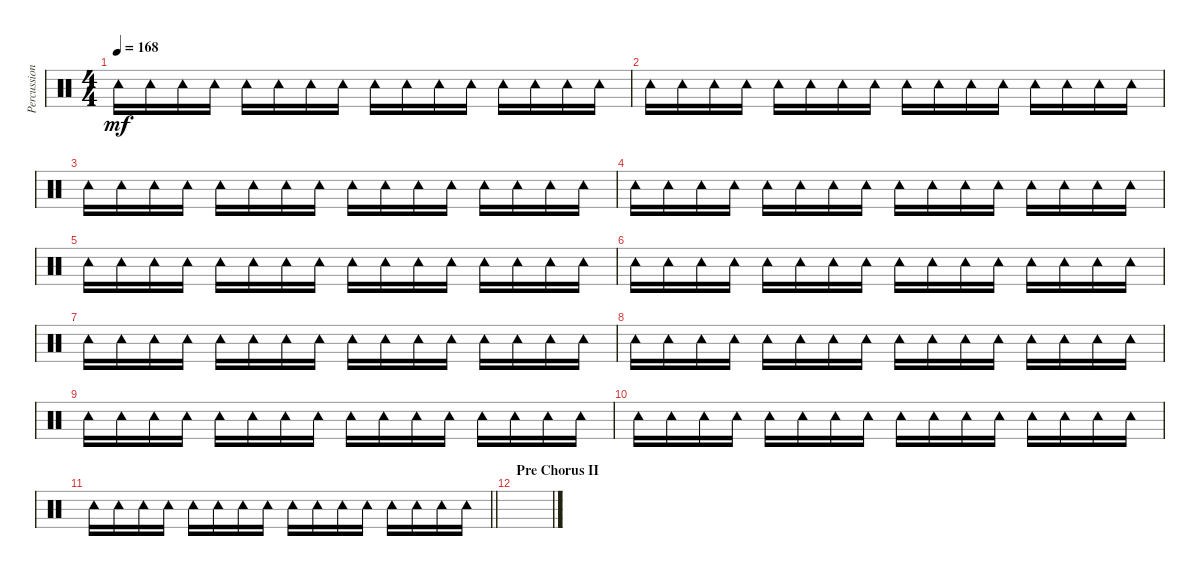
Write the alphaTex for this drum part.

\track ("Percussion" "Percussion") {instrument percussion}
\staff {score}
\articulation defaults
\ts (4 4)
\tempo 168
\clef neutral
\ks c "Tambourine (hit)".16{dy mf} "Tambourine (hit)".16 "Tambourine (hit)".16 "Tambourine (hit)".16 "Tambourine (hit)".16 "Tambourine (hit)".16 "Tambourine (hit)".16 "Tambourine (hit)".16 "Tambourine (hit)".16 "Tambourine (hit)".16 "Tambourine (hit)".16 "Tambourine (hit)".16 "Tambourine (hit)".16 "Tambourine (hit)".16 "Tambourine (hit)".16 "Tambourine (hit)".16
|
"Tambourine (hit)".16 "Tambourine (hit)".16 "Tambourine (hit)".16 "Tambourine (hit)".16 "Tambourine (hit)".16 "Tambourine (hit)".16 "Tambourine (hit)".16 "Tambourine (hit)".16 "Tambourine (hit)".16 "Tambourine (hit)".16 "Tambourine (hit)".16 "Tambourine (hit)".16 "Tambourine (hit)".16 "Tambourine (hit)".16 "Tambourine (hit)".16 "Tambourine (hit)".16 |
"Tambourine (hit)".16 "Tambourine (hit)".16 "Tambourine (hit)".16 "Tambourine (hit)".16 "Tambourine (hit)".16 "Tambourine (hit)".16 "Tambourine (hit)".16 "Tambourine (hit)".16 "Tambourine (hit)".16 "Tambourine (hit)".16 "Tambourine (hit)".16 "Tambourine (hit)".16 "Tambourine (hit)".16 "Tambourine (hit)".16 "Tambourine (hit)".16 "Tambourine (hit)".16 |
"Tambourine (hit)".16 "Tambourine (hit)".16 "Tambourine (hit)".16 "Tambourine (hit)".16 "Tambourine (hit)".16 "Tambourine (hit)".16 "Tambourine (hit)".16 "Tambourine (hit)".16 "Tambourine (hit)".16 "Tambourine (hit)".16 "Tambourine (hit)".16 "Tambourine (hit)".16 "Tambourine (hit)".16 "Tambourine (hit)".16 "Tambourine (hit)".16 "Tambourine (hit)".16 |
"Tambourine (hit)".16 "Tambourine (hit)".16 "Tambourine (hit)".16 "Tambourine (hit)".16 "Tambourine (hit)".16 "Tambourine (hit)".16 "Tambourine (hit)".16 "Tambourine (hit)".16 "Tambourine (hit)".16 "Tambourine (hit)".16 "Tambourine (hit)".16 "Tambourine (hit)".16 "Tambourine (hit)".16 "Tambourine (hit)".16 "Tambourine (hit)".16 "Tambourine (hit)".16 |
"Tambourine (hit)".16 "Tambourine (hit)".16 "Tambourine (hit)".16 "Tambourine (hit)".16 "Tambourine (hit)".16 "Tambourine (hit)".16 "Tambourine (hit)".16 "Tambourine (hit)".16 "Tambourine (hit)".16 "Tambourine (hit)".16 "Tambourine (hit)".16 "Tambourine (hit)".16 "Tambourine (hit)".16 "Tambourine (hit)".16 "Tambourine (hit)".16 "Tambourine (hit)".16 |
"Tambourine (hit)".16 "Tambourine (hit)".16 "Tambourine (hit)".16 "Tambourine (hit)".16 "Tambourine (hit)".16 "Tambourine (hit)".16 "Tambourine (hit)".16 "Tambourine (hit)".16 "Tambourine (hit)".16 "Tambourine (hit)".16 "Tambourine (hit)".16 "Tambourine (hit)".16 "Tambourine (hit)".16 "Tambourine (hit)".16 "Tambourine (hit)".16 "Tambourine (hit)".16 |
"Tambourine (hit)".16 "Tambourine (hit)".16 "Tambourine (hit)".16 "Tambourine (hit)".16 "Tambourine (hit)".16 "Tambourine (hit)".16 "Tambourine (hit)".16 "Tambourine (hit)".16 "Tambourine (hit)".16 "Tambourine (hit)".16 "Tambourine (hit)".16 "Tambourine (hit)".16 "Tambourine (hit)".16 "Tambourine (hit)".16 "Tambourine (hit)".16 "Tambourine (hit)".16 |
"Tambourine (hit)".16 "Tambourine (hit)".16 "Tambourine (hit)".16 "Tambourine (hit)".16 "Tambourine (hit)".16 "Tambourine (hit)".16 "Tambourine (hit)".16 "Tambourine (hit)".16 "Tambourine (hit)".16 "Tambourine (hit)".16 "Tambourine (hit)".16 "Tambourine (hit)".16 "Tambourine (hit)".16 "Tambourine (hit)".16 "Tambourine (hit)".16 "Tambourine (hit)".16 |
"Tambourine (hit)".16 "Tambourine (hit)".16 "Tambourine (hit)".16 "Tambourine (hit)".16 "Tambourine (hit)".16 "Tambourine (hit)".16 "Tambourine (hit)".16 "Tambourine (hit)".16 "Tambourine (hit)".16 "Tambourine (hit)".16 "Tambourine (hit)".16 "Tambourine (hit)".16 "Tambourine (hit)".16 "Tambourine (hit)".16 "Tambourine (hit)".16 "Tambourine (hit)".16 |
\barLineRight lightlight "Tambourine (hit)".16 "Tambourine (hit)".16 "Tambourine (hit)".16 "Tambourine (hit)".16 "Tambourine (hit)".16 "Tambourine (hit)".16 "Tambourine (hit)".16 "Tambourine (hit)".16 "Tambourine (hit)".16 "Tambourine (hit)".16 "Tambourine (hit)".16 "Tambourine (hit)".16 "Tambourine (hit)".16 "Tambourine (hit)".16 "Tambourine (hit)".16 "Tambourine (hit)".16
|
\section ("" "Pre Chorus II")
